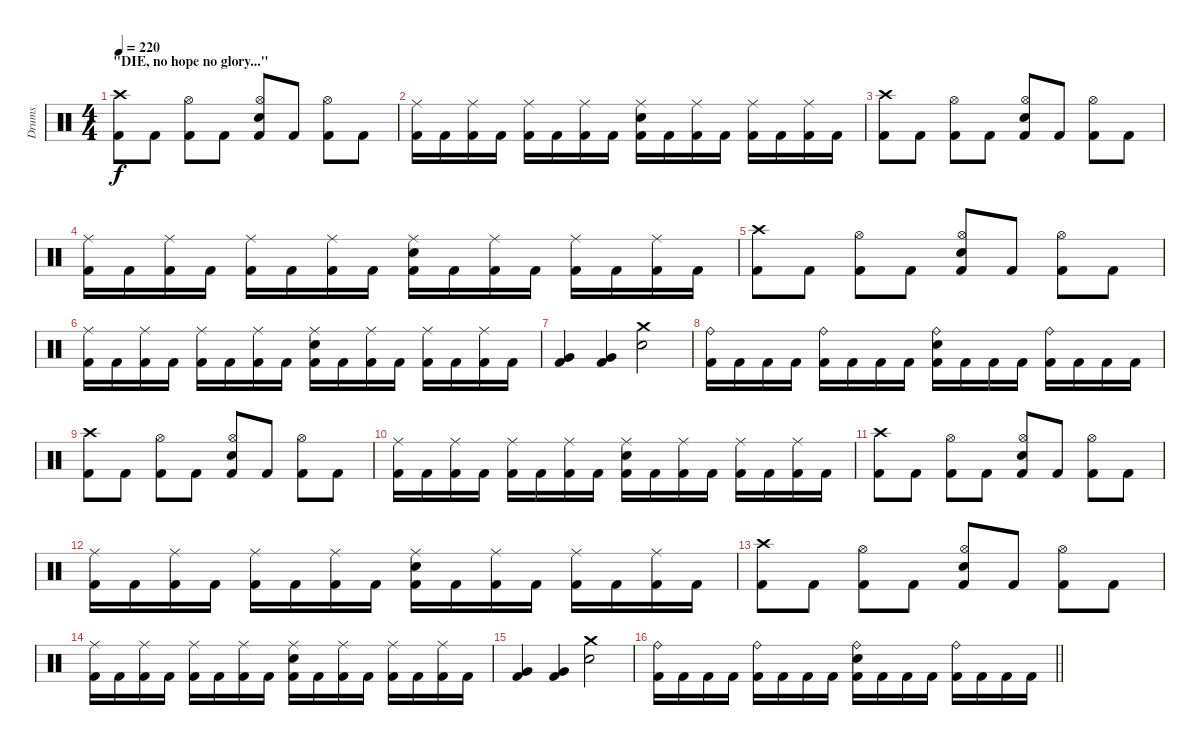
\track ("Drums" "Drums") {instrument percussion}
\staff {score}
\articulation defaults
\ts (4 4)
\section ("" "\"DIE, no hope no glory...\"")
\tempo 220
\clef neutral
\ks c
("Crash high (hit)" "Kick (hit) 2").8{dy f} "Kick (hit) 2".8 ("Hi-Hat (open)" "Kick (hit) 2").8 "Kick (hit) 2".8 ("Hi-Hat (open)" "Snare (hit) 2" "Kick (hit) 2").8 "Kick (hit) 2".8 ("Hi-Hat (open)" "Kick (hit) 2").8 "Kick (hit) 2".8 |
("Ride (middle)" "Kick (hit) 2").16 "Kick (hit) 2".16 ("Ride (middle)" "Kick (hit) 2").16 "Kick (hit) 2".16 ("Ride (middle)" "Kick (hit) 2").16 "Kick (hit) 2".16 ("Ride (middle)" "Kick (hit) 2").16 "Kick (hit) 2".16 ("Ride (middle)" "Snare (hit) 2" "Kick (hit) 2").16 "Kick (hit) 2".16 ("Ride (middle)" "Kick (hit) 2").16 "Kick (hit) 2".16 ("Ride (middle)" "Kick (hit) 2").16 "Kick (hit) 2".16 ("Ride (middle)" "Kick (hit) 2").16 "Kick (hit) 2".16 |
("Crash high (hit)" "Kick (hit) 2").8 "Kick (hit) 2".8 ("Hi-Hat (open)" "Kick (hit) 2").8 "Kick (hit) 2".8 ("Hi-Hat (open)" "Snare (hit) 2" "Kick (hit) 2").8 "Kick (hit) 2".8 ("Hi-Hat (open)" "Kick (hit) 2").8 "Kick (hit) 2".8 |
("Ride (middle)" "Kick (hit) 2").16 "Kick (hit) 2".16 ("Ride (middle)" "Kick (hit) 2").16 "Kick (hit) 2".16 ("Ride (middle)" "Kick (hit) 2").16 "Kick (hit) 2".16 ("Ride (middle)" "Kick (hit) 2").16 "Kick (hit) 2".16 ("Ride (middle)" "Snare (hit) 2" "Kick (hit) 2").16 "Kick (hit) 2".16 ("Ride (middle)" "Kick (hit) 2").16 "Kick (hit) 2".16 ("Ride (middle)" "Kick (hit) 2").16 "Kick (hit) 2".16 ("Ride (middle)" "Kick (hit) 2").16 "Kick (hit) 2".16 |
("Crash high (hit)" "Kick (hit) 2").8 "Kick (hit) 2".8 ("Hi-Hat (open)" "Kick (hit) 2").8 "Kick (hit) 2".8 ("Hi-Hat (open)" "Snare (hit) 2" "Kick (hit) 2").8 "Kick (hit) 2".8 ("Hi-Hat (open)" "Kick (hit) 2").8 "Kick (hit) 2".8 |
("Ride (middle)" "Kick (hit) 2").16 "Kick (hit) 2".16 ("Ride (middle)" "Kick (hit) 2").16 "Kick (hit) 2".16 ("Ride (middle)" "Kick (hit) 2").16 "Kick (hit) 2".16 ("Ride (middle)" "Kick (hit) 2").16 "Kick (hit) 2".16 ("Ride (middle)" "Snare (hit) 2" "Kick (hit) 2").16 "Kick (hit) 2".16 ("Ride (middle)" "Kick (hit) 2").16 "Kick (hit) 2".16 ("Ride (middle)" "Kick (hit) 2").16 "Kick (hit) 2".16 ("Ride (middle)" "Kick (hit) 2").16 "Kick (hit) 2".16 |
("Very Low Tom (hit)" "Kick (hit) 2").4 ("Very Low Tom (hit)" "Kick (hit) 2").4 ("Crash medium (hit)" "Snare (hit) 2").2 |
("Ride (bell)" "Kick (hit) 2").16 "Kick (hit) 2".16 "Kick (hit) 2".16 "Kick (hit) 2".16 ("Ride (bell)" "Kick (hit) 2").16 "Kick (hit) 2".16 "Kick (hit) 2".16 "Kick (hit) 2".16 ("Ride (bell)" "Snare (hit) 2" "Kick (hit) 2").16 "Kick (hit) 2".16 "Kick (hit) 2".16 "Kick (hit) 2".16 ("Ride (bell)" "Kick (hit) 2").16 "Kick (hit) 2".16 "Kick (hit) 2".16 "Kick (hit) 2".16 |
("Crash high (hit)" "Kick (hit) 2").8 "Kick (hit) 2".8 ("Hi-Hat (open)" "Kick (hit) 2").8 "Kick (hit) 2".8 ("Hi-Hat (open)" "Snare (hit) 2" "Kick (hit) 2").8 "Kick (hit) 2".8 ("Hi-Hat (open)" "Kick (hit) 2").8 "Kick (hit) 2".8 |
("Ride (middle)" "Kick (hit) 2").16 "Kick (hit) 2".16 ("Ride (middle)" "Kick (hit) 2").16 "Kick (hit) 2".16 ("Ride (middle)" "Kick (hit) 2").16 "Kick (hit) 2".16 ("Ride (middle)" "Kick (hit) 2").16 "Kick (hit) 2".16 ("Ride (middle)" "Snare (hit) 2" "Kick (hit) 2").16 "Kick (hit) 2".16 ("Ride (middle)" "Kick (hit) 2").16 "Kick (hit) 2".16 ("Ride (middle)" "Kick (hit) 2").16 "Kick (hit) 2".16 ("Ride (middle)" "Kick (hit) 2").16 "Kick (hit) 2".16 |
("Crash high (hit)" "Kick (hit) 2").8 "Kick (hit) 2".8 ("Hi-Hat (open)" "Kick (hit) 2").8 "Kick (hit) 2".8 ("Hi-Hat (open)" "Snare (hit) 2" "Kick (hit) 2").8 "Kick (hit) 2".8 ("Hi-Hat (open)" "Kick (hit) 2").8 "Kick (hit) 2".8 |
("Ride (middle)" "Kick (hit) 2").16 "Kick (hit) 2".16 ("Ride (middle)" "Kick (hit) 2").16 "Kick (hit) 2".16 ("Ride (middle)" "Kick (hit) 2").16 "Kick (hit) 2".16 ("Ride (middle)" "Kick (hit) 2").16 "Kick (hit) 2".16 ("Ride (middle)" "Snare (hit) 2" "Kick (hit) 2").16 "Kick (hit) 2".16 ("Ride (middle)" "Kick (hit) 2").16 "Kick (hit) 2".16 ("Ride (middle)" "Kick (hit) 2").16 "Kick (hit) 2".16 ("Ride (middle)" "Kick (hit) 2").16 "Kick (hit) 2".16 |
("Crash high (hit)" "Kick (hit) 2").8 "Kick (hit) 2".8 ("Hi-Hat (open)" "Kick (hit) 2").8 "Kick (hit) 2".8 ("Hi-Hat (open)" "Snare (hit) 2" "Kick (hit) 2").8 "Kick (hit) 2".8 ("Hi-Hat (open)" "Kick (hit) 2").8 "Kick (hit) 2".8 |
("Ride (middle)" "Kick (hit) 2").16 "Kick (hit) 2".16 ("Ride (middle)" "Kick (hit) 2").16 "Kick (hit) 2".16 ("Ride (middle)" "Kick (hit) 2").16 "Kick (hit) 2".16 ("Ride (middle)" "Kick (hit) 2").16 "Kick (hit) 2".16 ("Ride (middle)" "Snare (hit) 2" "Kick (hit) 2").16 "Kick (hit) 2".16 ("Ride (middle)" "Kick (hit) 2").16 "Kick (hit) 2".16 ("Ride (middle)" "Kick (hit) 2").16 "Kick (hit) 2".16 ("Ride (middle)" "Kick (hit) 2").16 "Kick (hit) 2".16 |
("Very Low Tom (hit)" "Kick (hit) 2").4 ("Very Low Tom (hit)" "Kick (hit) 2").4 ("Crash medium (hit)" "Snare (hit) 2").2 |
\barLineRight lightlight
("Ride (bell)" "Kick (hit) 2").16 "Kick (hit) 2".16 "Kick (hit) 2".16 "Kick (hit) 2".16 ("Ride (bell)" "Kick (hit) 2").16 "Kick (hit) 2".16 "Kick (hit) 2".16 "Kick (hit) 2".16 ("Ride (bell)" "Snare (hit) 2" "Kick (hit) 2").16 "Kick (hit) 2".16 "Kick (hit) 2".16 "Kick (hit) 2".16 ("Ride (bell)" "Kick (hit) 2").16 "Kick (hit) 2".16 "Kick (hit) 2".16 "Kick (hit) 2".16
